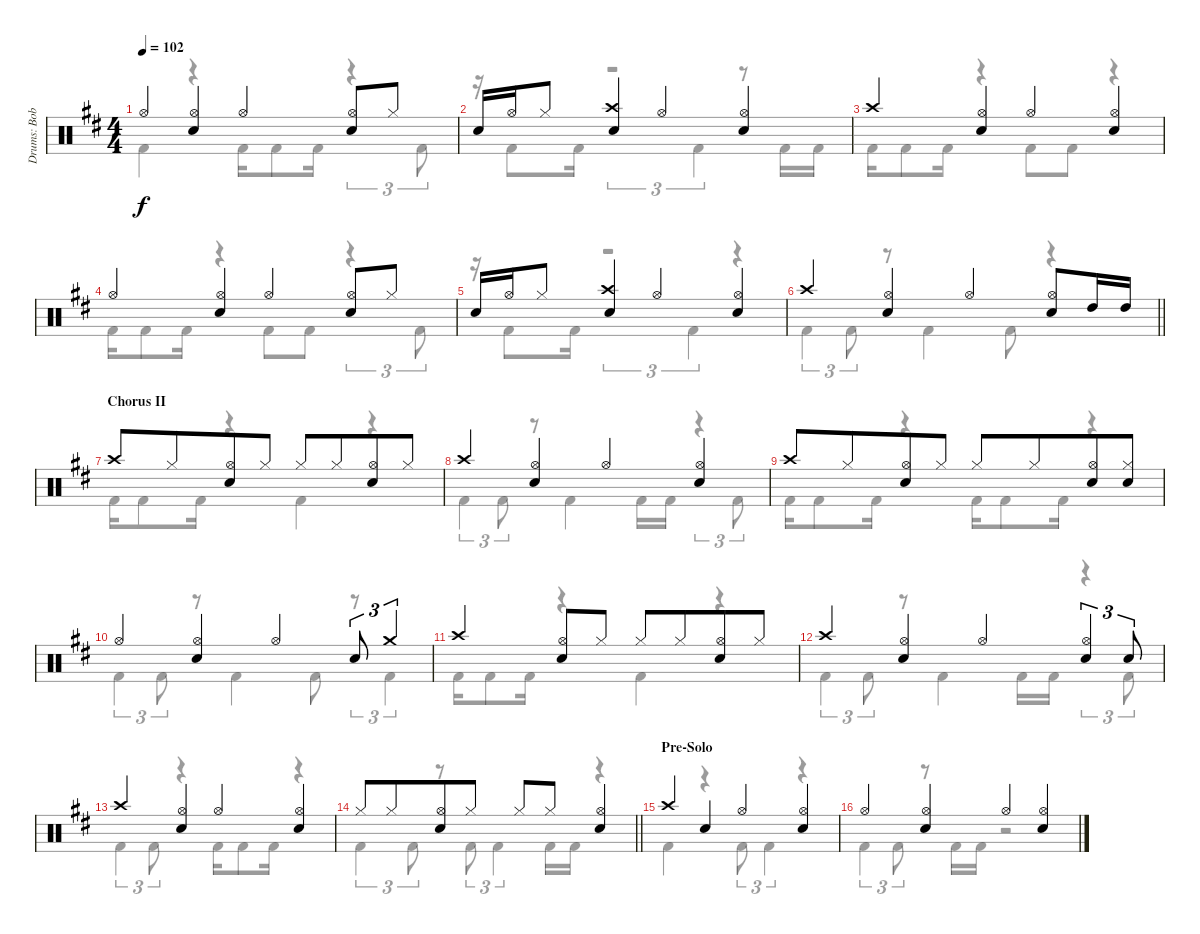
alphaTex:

\track ("Drums: Bobby" "Drums: Bob") {instrument percussion}
\staff {score}
\articulation defaults
\voice
\ts (4 4)
\tempo 102
\clef neutral
\ks d "Hi-Hat (open)".4{dy f}
("Hi-Hat (open)" "Snare (hit) 2").4 "Hi-Hat (open)".4 ("Hi-Hat (open)" "Snare (hit) 2").8 "Hi-Hat (closed)".8 |
"Snare (hit) 2".16 "Hi-Hat (open)".16 "Hi-Hat (closed)".8 ("Crash high (hit)" "Snare (hit) 2").4 "Hi-Hat (open)".4 ("Hi-Hat (open)" "Snare (hit) 2").4 |
"Crash high (hit)".4 ("Hi-Hat (open)" "Snare (hit) 2").4 "Hi-Hat (open)".4 ("Hi-Hat (open)" "Snare (hit) 2").4 |
"Hi-Hat (open)".4 ("Hi-Hat (open)" "Snare (hit) 2").4 "Hi-Hat (open)".4 ("Hi-Hat (open)" "Snare (hit) 2").8 "Hi-Hat (closed)".8 |
"Snare (hit) 2".16 "Hi-Hat (open)".16 "Hi-Hat (closed)".8 ("Crash high (hit)" "Snare (hit) 2").4 "Hi-Hat (open)".4 ("Hi-Hat (open)" "Snare (hit) 2").4 |
\barLineRight lightlight "Crash high (hit)".4
("Hi-Hat (open)" "Snare (hit) 2").4 "Hi-Hat (open)".4 ("Hi-Hat (open)" "Snare (hit) 2").8 "High Tom (hit)".16 "High Tom (hit)".16 |
\section ("" "Chorus II")
"Crash high (hit)".8 "Hi-Hat (closed)".8{beam merge} ("Hi-Hat (open)" "Snare (hit) 2").8 "Hi-Hat (closed)".8 "Hi-Hat (closed)".8 "Hi-Hat (closed)".8{beam merge} ("Hi-Hat (open)" "Snare (hit) 2").8 "Hi-Hat (closed)".8 |
"Crash high (hit)".4 ("Hi-Hat (open)" "Snare (hit) 2").4 "Hi-Hat (open)".4 ("Hi-Hat (open)" "Snare (hit) 2").4 |
"Crash high (hit)".8 "Hi-Hat (closed)".8{beam merge} ("Hi-Hat (open)" "Snare (hit) 2").8 "Hi-Hat (closed)".8 "Hi-Hat (closed)".8 "Hi-Hat (closed)".8{beam merge} ("Hi-Hat (open)" "Snare (hit) 2").8 ("Hi-Hat (closed)" "Snare (hit)").8 |
"Hi-Hat (open)".4 ("Hi-Hat (open)" "Snare (hit) 2").4 "Hi-Hat (open)".4 "Snare (hit) 2".8{tu (3 2)} "Crash medium (hit)".4{tu (3 2)} |
"Crash high (hit)".4{beam merge} ("Hi-Hat (open)" "Snare (hit) 2").8 "Hi-Hat (closed)".8 "Hi-Hat (closed)".8 "Hi-Hat (closed)".8{beam merge} ("Hi-Hat (open)" "Snare (hit) 2").8 "Hi-Hat (closed)".8 |
"Crash high (hit)".4 ("Hi-Hat (open)" "Snare (hit) 2").4 "Hi-Hat (open)".4 ("Hi-Hat (open)" "Snare (hit) 2").4{tu (3 2)} "Snare (hit) 2".8{tu (3 2)} |
"Crash high (hit)".4 ("Hi-Hat (open)" "Snare (hit) 2").4 "Hi-Hat (open)".4 ("Hi-Hat (open)" "Snare (hit) 2").4 |
\barLineRight lightlight "Hi-Hat (closed)".8 "Hi-Hat (closed)".8{beam merge}
("Hi-Hat (open)" "Snare (hit) 2").8 "Hi-Hat (closed)".8 "Hi-Hat (closed)".8 "Hi-Hat (closed)".8{beam merge} ("Hi-Hat (open)" "Snare (hit) 2").4 |
\section ("" "Pre-Solo")
"Crash high (hit)".4 "Snare (hit) 2".4 "Hi-Hat (open)".4 ("Hi-Hat (open)" "Snare (hit) 2").4 |
"Hi-Hat (open)".4 ("Hi-Hat (open)" "Snare (hit) 2").4 "Hi-Hat (open)".4 ("Hi-Hat (open)" "Snare (hit) 2").4
\voice
\clef neutral
\ottava regular
\simile none
\ks d "Kick (hit) 2".4{dy f}
r.4 "Kick (hit) 2".16 "Kick (hit) 2".8 "Kick (hit) 2".16 r.4{tu (3 2)} "Kick (hit) 2".8{tu (3 2)} |
r.16 "Kick (hit) 2".8 "Kick (hit) 2".16 r.2{tu (3 2)} "Kick (hit) 2".4{tu (3 2)} r.8 "Kick (hit) 2".16 "Kick (hit) 2".16 |
"Kick (hit) 2".16 "Kick (hit) 2".8 "Kick (hit) 2".16 r.4 "Kick (hit) 2".8 "Kick (hit) 2".8 r.4 |
"Kick (hit) 2".16 "Kick (hit) 2".8 "Kick (hit) 2".16 r.4 "Kick (hit) 2".8 "Kick (hit) 2".8 r.4{tu (3 2)} "Kick (hit) 2".8{tu (3 2)} |
r.16 "Kick (hit) 2".8 "Kick (hit) 2".16 r.2{tu (3 2)} "Kick (hit) 2".4{tu (3 2)} r.4 |
\barLineRight lightlight "Kick (hit) 2".4{tu (3 2)} "Kick (hit) 2".8{tu (3 2)}
r.8 "Kick (hit) 2".4 "Kick (hit) 2".8 r.4 |
"Kick (hit) 2".16 "Kick (hit) 2".8 "Kick (hit) 2".16 r.4 "Kick (hit) 2".4 r.4 |
"Kick (hit) 2".4{tu (3 2)} "Kick (hit) 2".8{tu (3 2)} r.8 "Kick (hit) 2".4 "Kick (hit) 2".16 "Kick (hit) 2".16 r.4{tu (3 2)} "Kick (hit) 2".8{tu (3 2)} |
"Kick (hit) 2".16 "Kick (hit) 2".8 "Kick (hit) 2".16 r.4 "Kick (hit) 2".16 "Kick (hit) 2".8 "Kick (hit) 2".16 r.4 |
"Kick (hit) 2".4{tu (3 2)} "Kick (hit) 2".8{tu (3 2)} r.8 "Kick (hit) 2".4 "Kick (hit) 2".8 r.8{tu (3 2)} "Kick (hit) 2".4{tu (3 2)} |
"Kick (hit) 2".16 "Kick (hit) 2".8 "Kick (hit) 2".16 r.4 "Kick (hit) 2".4 r.4 |
"Kick (hit) 2".4{tu (3 2)} "Kick (hit) 2".8{tu (3 2)} r.8 "Kick (hit) 2".4 "Kick (hit) 2".16 "Kick (hit) 2".16 r.4{tu (3 2)} "Kick (hit) 2".8{tu (3 2)} |
"Kick (hit) 2".4{tu (3 2)} "Kick (hit) 2".8{tu (3 2)} r.4 "Kick (hit) 2".16 "Kick (hit) 2".8 "Kick (hit) 2".16 r.4 |
\barLineRight lightlight "Kick (hit) 2".4{tu (3 2)} "Kick (hit) 2".8{tu (3 2)}
r.8 "Kick (hit) 2".8{tu (3 2)} "Kick (hit) 2".4{tu (3 2)} "Kick (hit) 2".16 "Kick (hit) 2".16 r.4 |
"Kick (hit) 2".4 r.4 "Kick (hit) 2".8{tu (3 2)} "Kick (hit) 2".4{tu (3 2)} r.4 |
"Kick (hit) 2".4{tu (3 2)} "Kick (hit) 2".8{tu (3 2)} r.8 "Kick (hit) 2".16 "Kick (hit) 2".16 r.2
